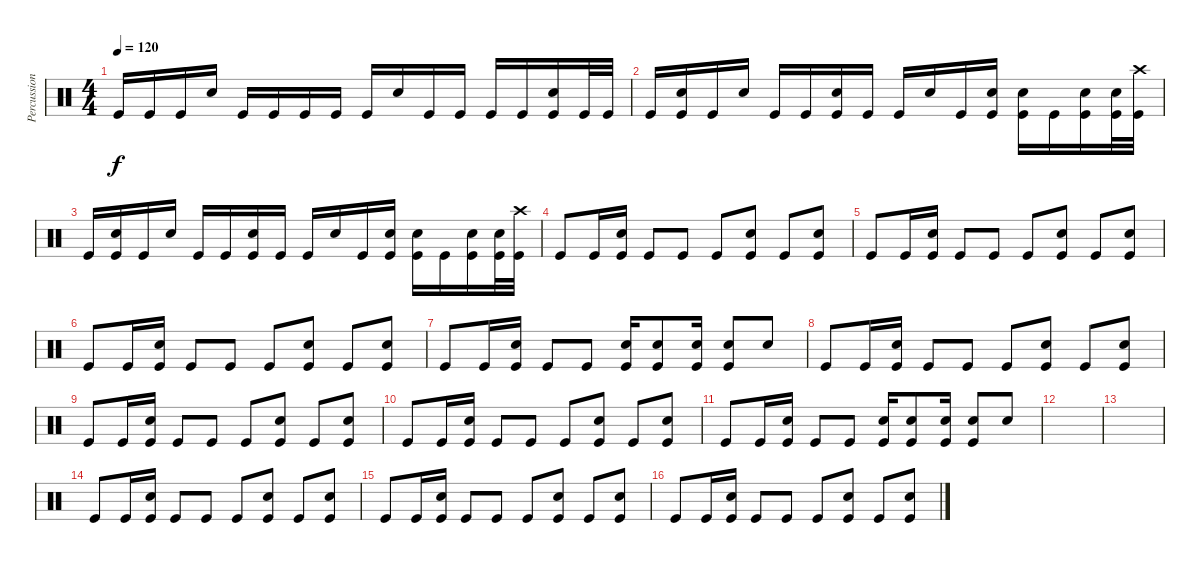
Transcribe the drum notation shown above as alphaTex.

\track ("Percussion" "Percussion") {instrument percussion}
\staff {score}
\articulation defaults
\ts (4 4)
\tempo 120
\clef neutral
\ks c "Kick (hit)".16{dy f} "Kick (hit)".16 "Kick (hit)".16 "Snare (hit) 2".16 "Kick (hit)".16 "Kick (hit)".16 "Kick (hit)".16 "Kick (hit)".16 "Kick (hit)".16 "Snare (hit) 2".16 "Kick (hit)".16 "Kick (hit)".16 "Kick (hit)".16 "Kick (hit)".16
("Kick (hit)" "Snare (hit) 2").16 "Kick (hit)".32 "Kick (hit)".32 |
"Kick (hit)".16 ("Kick (hit)" "Snare (hit) 2").16 "Kick (hit)".16 "Snare (hit) 2".16 "Kick (hit)".16 "Kick (hit)".16 ("Kick (hit)" "Snare (hit) 2").16 "Kick (hit)".16 "Kick (hit)".16 "Snare (hit) 2".16 "Kick (hit)".16 ("Kick (hit)" "Snare (hit) 2").16 ("Kick (hit)" "Snare (hit) 2").16 "Kick (hit)".16 ("Kick (hit)" "Snare (hit) 2").16 ("Kick (hit)" "Snare (hit) 2").32 ("Kick (hit)" "Crash high (hit)").32 |
"Kick (hit)".16 ("Kick (hit)" "Snare (hit) 2").16 "Kick (hit)".16 "Snare (hit) 2".16 "Kick (hit)".16 "Kick (hit)".16 ("Kick (hit)" "Snare (hit) 2").16 "Kick (hit)".16 "Kick (hit)".16 "Snare (hit) 2".16 "Kick (hit)".16 ("Kick (hit)" "Snare (hit) 2").16 ("Kick (hit)" "Snare (hit) 2").16 "Kick (hit)".16 ("Kick (hit)" "Snare (hit) 2").16 ("Kick (hit)" "Snare (hit) 2").32 ("Kick (hit)" "Crash high (hit)").32 |
"Kick (hit)".8 "Kick (hit)".16 ("Kick (hit)" "Snare (hit) 2").16 "Kick (hit)".8 "Kick (hit)".8 "Kick (hit)".8 ("Kick (hit)" "Snare (hit) 2").8 "Kick (hit)".8 ("Kick (hit)" "Snare (hit) 2").8 |
"Kick (hit)".8 "Kick (hit)".16 ("Kick (hit)" "Snare (hit) 2").16 "Kick (hit)".8 "Kick (hit)".8 "Kick (hit)".8 ("Kick (hit)" "Snare (hit) 2").8 "Kick (hit)".8 ("Kick (hit)" "Snare (hit) 2").8 |
"Kick (hit)".8 "Kick (hit)".16 ("Kick (hit)" "Snare (hit) 2").16 "Kick (hit)".8 "Kick (hit)".8 "Kick (hit)".8 ("Kick (hit)" "Snare (hit) 2").8 "Kick (hit)".8 ("Kick (hit)" "Snare (hit) 2").8 |
"Kick (hit)".8 "Kick (hit)".16 ("Kick (hit)" "Snare (hit) 2").16 "Kick (hit)".8 "Kick (hit)".8 ("Kick (hit)" "Snare (hit) 2").16 ("Kick (hit)" "Snare (hit) 2").8 ("Kick (hit)" "Snare (hit) 2").16 ("Kick (hit)" "Snare (hit) 2").8 "Snare (hit) 2".8 |
"Kick (hit)".8 "Kick (hit)".16 ("Kick (hit)" "Snare (hit) 2").16 "Kick (hit)".8 "Kick (hit)".8 "Kick (hit)".8 ("Kick (hit)" "Snare (hit) 2").8 "Kick (hit)".8 ("Kick (hit)" "Snare (hit) 2").8 |
"Kick (hit)".8 "Kick (hit)".16 ("Kick (hit)" "Snare (hit) 2").16 "Kick (hit)".8 "Kick (hit)".8 "Kick (hit)".8 ("Kick (hit)" "Snare (hit) 2").8 "Kick (hit)".8 ("Kick (hit)" "Snare (hit) 2").8 |
"Kick (hit)".8 "Kick (hit)".16 ("Kick (hit)" "Snare (hit) 2").16 "Kick (hit)".8 "Kick (hit)".8 "Kick (hit)".8 ("Kick (hit)" "Snare (hit) 2").8 "Kick (hit)".8 ("Kick (hit)" "Snare (hit) 2").8 |
"Kick (hit)".8 "Kick (hit)".16 ("Kick (hit)" "Snare (hit) 2").16 "Kick (hit)".8 "Kick (hit)".8 ("Kick (hit)" "Snare (hit) 2").16 ("Kick (hit)" "Snare (hit) 2").8 ("Kick (hit)" "Snare (hit) 2").16 ("Kick (hit)" "Snare (hit) 2").8 "Snare (hit) 2".8 |
|
|
"Kick (hit)".8 "Kick (hit)".16 ("Kick (hit)" "Snare (hit) 2").16 "Kick (hit)".8 "Kick (hit)".8 "Kick (hit)".8 ("Kick (hit)" "Snare (hit) 2").8 "Kick (hit)".8 ("Kick (hit)" "Snare (hit) 2").8 |
"Kick (hit)".8 "Kick (hit)".16 ("Kick (hit)" "Snare (hit) 2").16 "Kick (hit)".8 "Kick (hit)".8 "Kick (hit)".8 ("Kick (hit)" "Snare (hit) 2").8 "Kick (hit)".8 ("Kick (hit)" "Snare (hit) 2").8 |
"Kick (hit)".8 "Kick (hit)".16 ("Kick (hit)" "Snare (hit) 2").16 "Kick (hit)".8 "Kick (hit)".8 "Kick (hit)".8 ("Kick (hit)" "Snare (hit) 2").8 "Kick (hit)".8 ("Kick (hit)" "Snare (hit) 2").8
